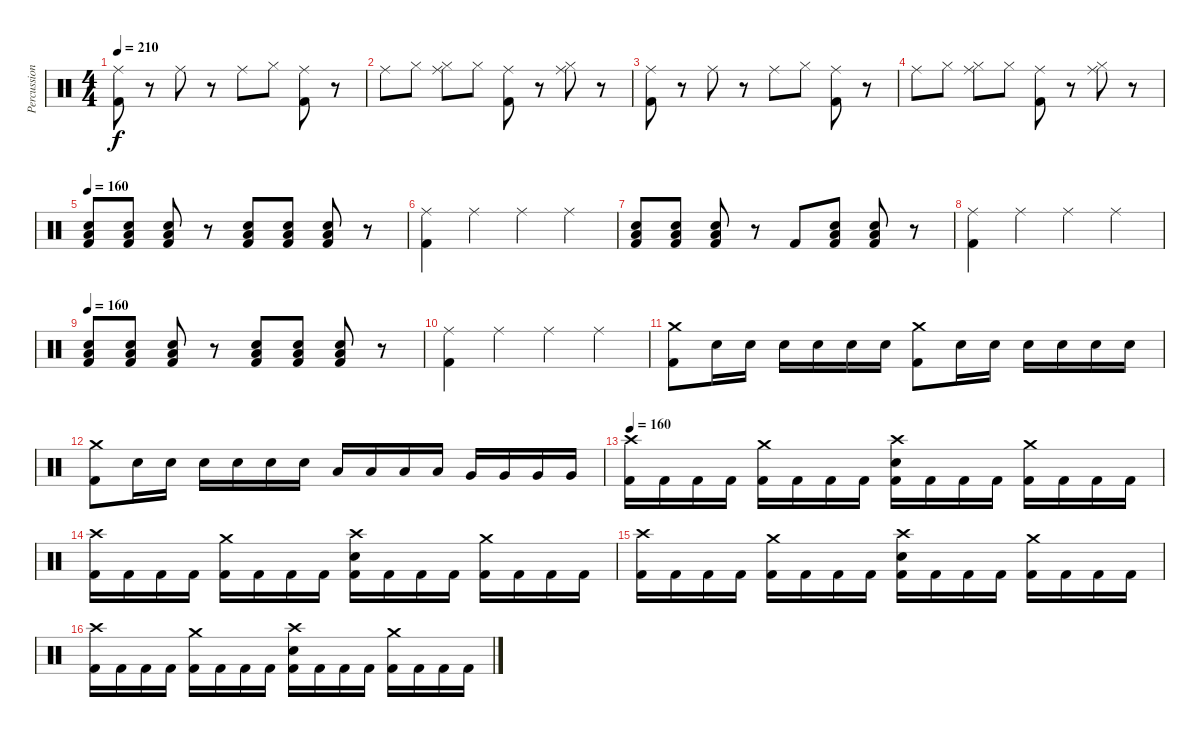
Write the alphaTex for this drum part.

\track ("Percussion" "Percussion") {instrument percussion}
\staff {score}
\articulation defaults
\ts (4 4)
\tempo 210
\clef neutral
\ks c
("Ride (middle)" "Kick (hit) 2").8{dy f} r.8 "Ride (middle)".8 r.8 "Ride (middle)".8 "Hi-Hat (closed)".8 ("Ride (middle)" "Kick (hit) 2").8 r.8 |
"Ride (middle)".8 "Hi-Hat (closed)".8 ("Ride (middle)" "Hi-Hat (closed)").8 "Hi-Hat (closed)".8 ("Ride (middle)" "Kick (hit) 2").8 r.8 ("Ride (middle)" "Hi-Hat (closed)").8 r.8 |
("Ride (middle)" "Kick (hit) 2").8 r.8 "Ride (middle)".8 r.8 "Ride (middle)".8 "Hi-Hat (closed)".8 ("Ride (middle)" "Kick (hit) 2").8 r.8 |
"Ride (middle)".8 "Hi-Hat (closed)".8 ("Ride (middle)" "Hi-Hat (closed)").8 "Hi-Hat (closed)".8 ("Ride (middle)" "Kick (hit) 2").8 r.8 ("Ride (middle)" "Hi-Hat (closed)").8 r.8 |
\tempo 160
("Low Tom (hit)" "Electric Snare (hit)" "Kick (hit) 2").8 ("Low Tom (hit)" "Electric Snare (hit)" "Kick (hit) 2").8 ("Low Tom (hit)" "Electric Snare (hit)" "Kick (hit) 2").8 r.8 ("Low Tom (hit)" "Electric Snare (hit)" "Kick (hit) 2").8 ("Low Tom (hit)" "Electric Snare (hit)" "Kick (hit) 2").8 ("Low Tom (hit)" "Electric Snare (hit)" "Kick (hit) 2").8 r.8 |
("Ride (middle)" "Kick (hit) 2").4 "Ride (middle)".4 "Ride (middle)".4 "Ride (middle)".4 |
("Low Tom (hit)" "Electric Snare (hit)" "Kick (hit) 2").8 ("Low Tom (hit)" "Electric Snare (hit)" "Kick (hit) 2").8 ("Low Tom (hit)" "Electric Snare (hit)" "Kick (hit) 2").8 r.8 "Kick (hit) 2".8 ("Low Tom (hit)" "Electric Snare (hit)" "Kick (hit) 2").8 ("Low Tom (hit)" "Electric Snare (hit)" "Kick (hit) 2").8 r.8 |
("Ride (middle)" "Kick (hit) 2").4 "Ride (middle)".4 "Ride (middle)".4 "Ride (middle)".4 |
\tempo 160
("Low Tom (hit)" "Electric Snare (hit)" "Kick (hit) 2").8 ("Low Tom (hit)" "Electric Snare (hit)" "Kick (hit) 2").8 ("Low Tom (hit)" "Electric Snare (hit)" "Kick (hit) 2").8 r.8 ("Low Tom (hit)" "Electric Snare (hit)" "Kick (hit) 2").8 ("Low Tom (hit)" "Electric Snare (hit)" "Kick (hit) 2").8 ("Low Tom (hit)" "Electric Snare (hit)" "Kick (hit) 2").8 r.8 |
("Ride (middle)" "Kick (hit) 2").4 "Ride (middle)".4 "Ride (middle)".4 "Ride (middle)".4 |
("Crash medium (hit)" "Kick (hit) 2").8 "Electric Snare (hit)".16 "Electric Snare (hit)".16 "Electric Snare (hit)".16 "Electric Snare (hit)".16 "Electric Snare (hit)".16 "Electric Snare (hit)".16 ("Crash medium (hit)" "Kick (hit) 2").8 "Electric Snare (hit)".16 "Electric Snare (hit)".16 "Electric Snare (hit)".16 "Electric Snare (hit)".16 "Electric Snare (hit)".16 "Electric Snare (hit)".16 |
("Crash medium (hit)" "Kick (hit) 2").8 "Electric Snare (hit)".16 "Electric Snare (hit)".16 "Electric Snare (hit)".16 "Electric Snare (hit)".16 "Electric Snare (hit)".16 "Electric Snare (hit)".16 "Low Tom (hit)".16 "Low Tom (hit)".16 "Low Tom (hit)".16 "Low Tom (hit)".16 "Very Low Tom (hit)".16 "Very Low Tom (hit)".16 "Very Low Tom (hit)".16 "Very Low Tom (hit)".16 |
\tempo 160
("Crash high (hit)" "Kick (hit) 2").16 "Kick (hit) 2".16 "Kick (hit) 2".16 "Kick (hit) 2".16 ("Crash medium (hit)" "Kick (hit) 2").16 "Kick (hit) 2".16 "Kick (hit) 2".16 "Kick (hit) 2".16 ("Crash high (hit)" "Electric Snare (hit)" "Kick (hit) 2").16 "Kick (hit) 2".16 "Kick (hit) 2".16 "Kick (hit) 2".16 ("Crash medium (hit)" "Kick (hit) 2").16 "Kick (hit) 2".16 "Kick (hit) 2".16 "Kick (hit) 2".16 |
("Crash high (hit)" "Kick (hit) 2").16 "Kick (hit) 2".16 "Kick (hit) 2".16 "Kick (hit) 2".16 ("Crash medium (hit)" "Kick (hit) 2").16 "Kick (hit) 2".16 "Kick (hit) 2".16 "Kick (hit) 2".16 ("Crash high (hit)" "Electric Snare (hit)" "Kick (hit) 2").16 "Kick (hit) 2".16 "Kick (hit) 2".16 "Kick (hit) 2".16 ("Crash medium (hit)" "Kick (hit) 2").16 "Kick (hit) 2".16 "Kick (hit) 2".16 "Kick (hit) 2".16 |
("Crash high (hit)" "Kick (hit) 2").16 "Kick (hit) 2".16 "Kick (hit) 2".16 "Kick (hit) 2".16 ("Crash medium (hit)" "Kick (hit) 2").16 "Kick (hit) 2".16 "Kick (hit) 2".16 "Kick (hit) 2".16 ("Crash high (hit)" "Electric Snare (hit)" "Kick (hit) 2").16 "Kick (hit) 2".16 "Kick (hit) 2".16 "Kick (hit) 2".16 ("Crash medium (hit)" "Kick (hit) 2").16 "Kick (hit) 2".16 "Kick (hit) 2".16 "Kick (hit) 2".16 |
("Crash high (hit)" "Kick (hit) 2").16 "Kick (hit) 2".16 "Kick (hit) 2".16 "Kick (hit) 2".16 ("Crash medium (hit)" "Kick (hit) 2").16 "Kick (hit) 2".16 "Kick (hit) 2".16 "Kick (hit) 2".16 ("Crash high (hit)" "Electric Snare (hit)" "Kick (hit) 2").16 "Kick (hit) 2".16 "Kick (hit) 2".16 "Kick (hit) 2".16 ("Crash medium (hit)" "Kick (hit) 2").16 "Kick (hit) 2".16 "Kick (hit) 2".16 "Kick (hit) 2".16
